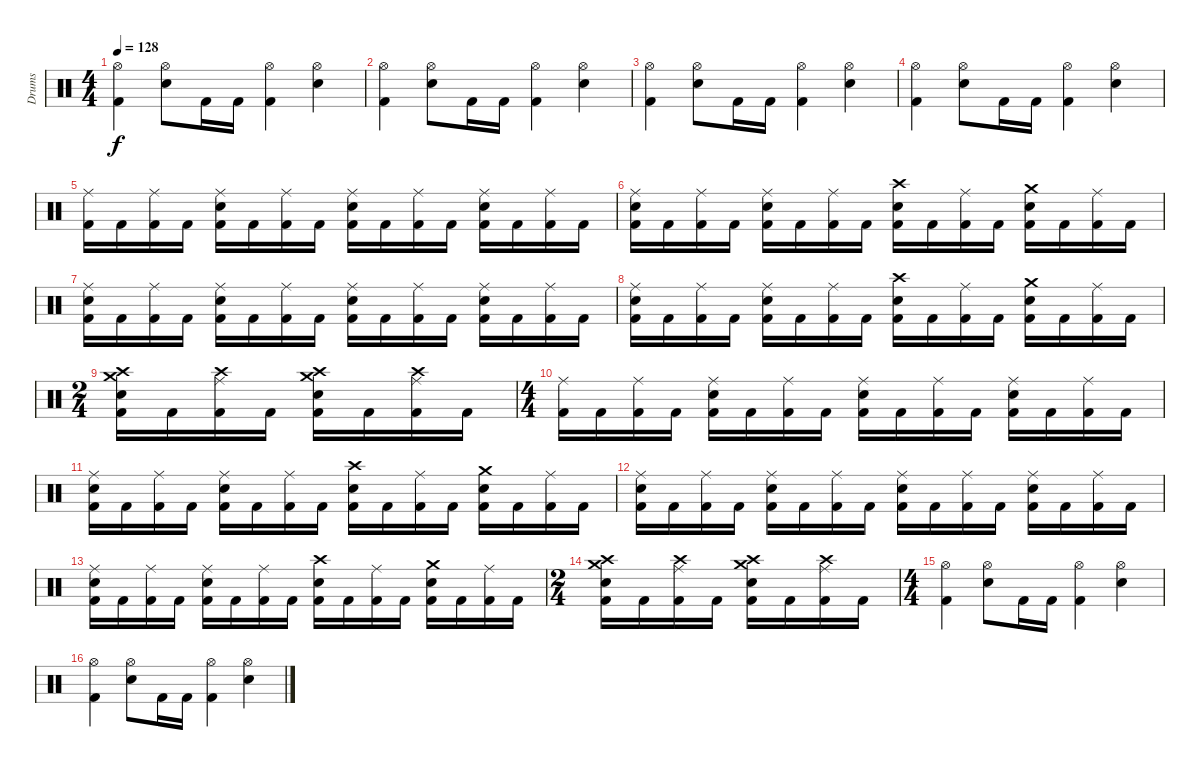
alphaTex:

\track ("Drums" "Drums") {instrument percussion}
\staff {score}
\articulation defaults
\ts (4 4)
\tempo 128
\clef neutral
\ks c
("Hi-Hat (open)" "Kick (hit) 2").4{dy f} ("Hi-Hat (open)" "Snare (hit) 2").8 "Kick (hit) 2".16 "Kick (hit) 2".16 ("Hi-Hat (open)" "Kick (hit) 2").4 ("Hi-Hat (open)" "Snare (hit) 2").4 |
("Hi-Hat (open)" "Kick (hit) 2").4 ("Hi-Hat (open)" "Snare (hit) 2").8 "Kick (hit) 2".16 "Kick (hit) 2".16 ("Hi-Hat (open)" "Kick (hit) 2").4 ("Hi-Hat (open)" "Snare (hit) 2").4 |
("Hi-Hat (open)" "Kick (hit) 2").4 ("Hi-Hat (open)" "Snare (hit) 2").8 "Kick (hit) 2".16 "Kick (hit) 2".16 ("Hi-Hat (open)" "Kick (hit) 2").4 ("Hi-Hat (open)" "Snare (hit) 2").4 |
("Hi-Hat (open)" "Kick (hit) 2").4 ("Hi-Hat (open)" "Snare (hit) 2").8 "Kick (hit) 2".16 "Kick (hit) 2".16 ("Hi-Hat (open)" "Kick (hit) 2").4 ("Hi-Hat (open)" "Snare (hit) 2").4 |
("Ride (middle)" "Kick (hit) 2").16 "Kick (hit) 2".16 ("Ride (middle)" "Kick (hit) 2").16 "Kick (hit) 2".16 ("Ride (middle)" "Snare (hit) 2" "Kick (hit) 2").16 "Kick (hit) 2".16 ("Ride (middle)" "Kick (hit) 2").16 "Kick (hit) 2".16 ("Ride (middle)" "Snare (hit) 2" "Kick (hit) 2").16 "Kick (hit) 2".16 ("Ride (middle)" "Kick (hit) 2").16 "Kick (hit) 2".16 ("Ride (middle)" "Snare (hit) 2" "Kick (hit) 2").16 "Kick (hit) 2".16 ("Ride (middle)" "Kick (hit) 2").16 "Kick (hit) 2".16 |
("Ride (middle)" "Snare (hit) 2" "Kick (hit) 2").16 "Kick (hit) 2".16 ("Ride (middle)" "Kick (hit) 2").16 "Kick (hit) 2".16 ("Ride (middle)" "Snare (hit) 2" "Kick (hit) 2").16 "Kick (hit) 2".16 ("Ride (middle)" "Kick (hit) 2").16 "Kick (hit) 2".16 ("Crash high (hit)" "Snare (hit) 2" "Kick (hit) 2").16 "Kick (hit) 2".16 ("Ride (middle)" "Kick (hit) 2").16 "Kick (hit) 2".16 ("Crash medium (hit)" "Snare (hit) 2" "Kick (hit) 2").16 "Kick (hit) 2".16 ("Ride (middle)" "Kick (hit) 2").16 "Kick (hit) 2".16 |
("Ride (middle)" "Snare (hit) 2" "Kick (hit) 2").16 "Kick (hit) 2".16 ("Ride (middle)" "Kick (hit) 2").16 "Kick (hit) 2".16 ("Ride (middle)" "Snare (hit) 2" "Kick (hit) 2").16 "Kick (hit) 2".16 ("Ride (middle)" "Kick (hit) 2").16 "Kick (hit) 2".16 ("Ride (middle)" "Snare (hit) 2" "Kick (hit) 2").16 "Kick (hit) 2".16 ("Ride (middle)" "Kick (hit) 2").16 "Kick (hit) 2".16 ("Ride (middle)" "Snare (hit) 2" "Kick (hit) 2").16 "Kick (hit) 2".16 ("Ride (middle)" "Kick (hit) 2").16 "Kick (hit) 2".16 |
("Ride (middle)" "Snare (hit) 2" "Kick (hit) 2").16 "Kick (hit) 2".16 ("Ride (middle)" "Kick (hit) 2").16 "Kick (hit) 2".16 ("Ride (middle)" "Snare (hit) 2" "Kick (hit) 2").16 "Kick (hit) 2".16 ("Ride (middle)" "Kick (hit) 2").16 "Kick (hit) 2".16 ("Crash high (hit)" "Snare (hit) 2" "Kick (hit) 2").16 "Kick (hit) 2".16 ("Ride (middle)" "Kick (hit) 2").16 "Kick (hit) 2".16 ("Crash medium (hit)" "Snare (hit) 2" "Kick (hit) 2").16 "Kick (hit) 2".16 ("Ride (middle)" "Kick (hit) 2").16 "Kick (hit) 2".16 |
\ts (2 4)
("Crash high (hit)" "Crash medium (hit)" "Snare (hit) 2" "Kick (hit) 2").16 "Kick (hit) 2".16 ("Ride (middle)" "Crash high (hit)" "Kick (hit) 2").16 "Kick (hit) 2".16 ("Crash medium (hit)" "Crash high (hit)" "Snare (hit) 2" "Kick (hit) 2").16 "Kick (hit) 2".16 ("Ride (middle)" "Crash high (hit)" "Kick (hit) 2").16 "Kick (hit) 2".16 |
\ts (4 4)
("Ride (middle)" "Kick (hit) 2").16 "Kick (hit) 2".16 ("Ride (middle)" "Kick (hit) 2").16 "Kick (hit) 2".16 ("Ride (middle)" "Snare (hit) 2" "Kick (hit) 2").16 "Kick (hit) 2".16 ("Ride (middle)" "Kick (hit) 2").16 "Kick (hit) 2".16 ("Ride (middle)" "Snare (hit) 2" "Kick (hit) 2").16 "Kick (hit) 2".16 ("Ride (middle)" "Kick (hit) 2").16 "Kick (hit) 2".16 ("Ride (middle)" "Snare (hit) 2" "Kick (hit) 2").16 "Kick (hit) 2".16 ("Ride (middle)" "Kick (hit) 2").16 "Kick (hit) 2".16 |
("Ride (middle)" "Snare (hit) 2" "Kick (hit) 2").16 "Kick (hit) 2".16 ("Ride (middle)" "Kick (hit) 2").16 "Kick (hit) 2".16 ("Ride (middle)" "Snare (hit) 2" "Kick (hit) 2").16 "Kick (hit) 2".16 ("Ride (middle)" "Kick (hit) 2").16 "Kick (hit) 2".16 ("Crash high (hit)" "Snare (hit) 2" "Kick (hit) 2").16 "Kick (hit) 2".16 ("Ride (middle)" "Kick (hit) 2").16 "Kick (hit) 2".16 ("Crash medium (hit)" "Snare (hit) 2" "Kick (hit) 2").16 "Kick (hit) 2".16 ("Ride (middle)" "Kick (hit) 2").16 "Kick (hit) 2".16 |
("Ride (middle)" "Snare (hit) 2" "Kick (hit) 2").16 "Kick (hit) 2".16 ("Ride (middle)" "Kick (hit) 2").16 "Kick (hit) 2".16 ("Ride (middle)" "Snare (hit) 2" "Kick (hit) 2").16 "Kick (hit) 2".16 ("Ride (middle)" "Kick (hit) 2").16 "Kick (hit) 2".16 ("Ride (middle)" "Snare (hit) 2" "Kick (hit) 2").16 "Kick (hit) 2".16 ("Ride (middle)" "Kick (hit) 2").16 "Kick (hit) 2".16 ("Ride (middle)" "Snare (hit) 2" "Kick (hit) 2").16 "Kick (hit) 2".16 ("Ride (middle)" "Kick (hit) 2").16 "Kick (hit) 2".16 |
("Ride (middle)" "Snare (hit) 2" "Kick (hit) 2").16 "Kick (hit) 2".16 ("Ride (middle)" "Kick (hit) 2").16 "Kick (hit) 2".16 ("Ride (middle)" "Snare (hit) 2" "Kick (hit) 2").16 "Kick (hit) 2".16 ("Ride (middle)" "Kick (hit) 2").16 "Kick (hit) 2".16 ("Crash high (hit)" "Snare (hit) 2" "Kick (hit) 2").16 "Kick (hit) 2".16 ("Ride (middle)" "Kick (hit) 2").16 "Kick (hit) 2".16 ("Crash medium (hit)" "Snare (hit) 2" "Kick (hit) 2").16 "Kick (hit) 2".16 ("Ride (middle)" "Kick (hit) 2").16 "Kick (hit) 2".16 |
\ts (2 4)
("Crash high (hit)" "Crash medium (hit)" "Snare (hit) 2" "Kick (hit) 2").16 "Kick (hit) 2".16 ("Ride (middle)" "Crash high (hit)" "Kick (hit) 2").16 "Kick (hit) 2".16 ("Crash medium (hit)" "Crash high (hit)" "Snare (hit) 2" "Kick (hit) 2").16 "Kick (hit) 2".16 ("Ride (middle)" "Crash high (hit)" "Kick (hit) 2").16 "Kick (hit) 2".16 |
\ts (4 4)
("Hi-Hat (open)" "Kick (hit) 2").4 ("Hi-Hat (open)" "Snare (hit) 2").8 "Kick (hit) 2".16 "Kick (hit) 2".16 ("Hi-Hat (open)" "Kick (hit) 2").4 ("Hi-Hat (open)" "Snare (hit) 2").4 |
("Hi-Hat (open)" "Kick (hit) 2").4 ("Hi-Hat (open)" "Snare (hit) 2").8 "Kick (hit) 2".16 "Kick (hit) 2".16 ("Hi-Hat (open)" "Kick (hit) 2").4 ("Hi-Hat (open)" "Snare (hit) 2").4
